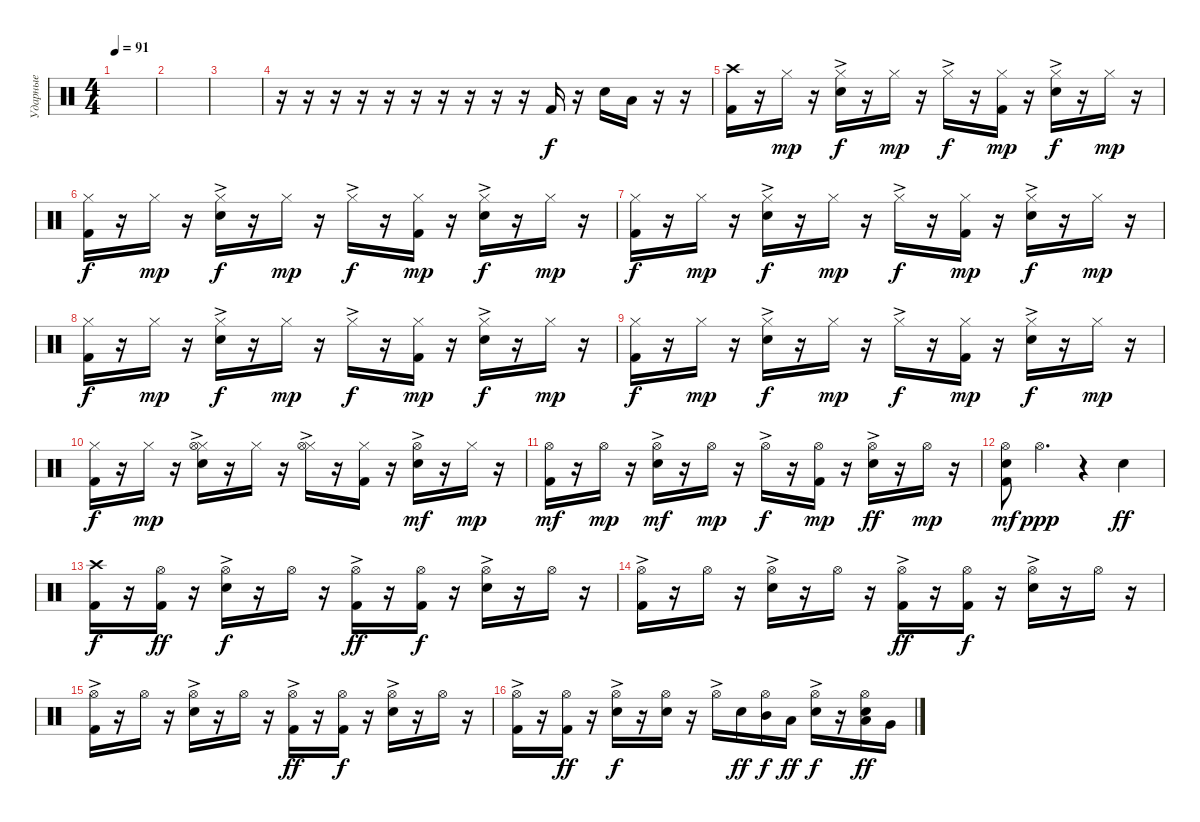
\track ("Ударные" "Ударные") {instrument percussion}
\staff {score}
\articulation defaults
\ts (4 4)
\tempo 91
\clef neutral
\ks c
|
|
|
r.16 r.16 r.16 r.16 r.16 r.16 r.16 r.16 r.16 r.16 "Kick (hit) 2".16 r.16 "Snare (hit) 2".16 "Low Tom (hit)".16 r.16 r.16 |
("Crash high (hit)" "Kick (hit) 2").16 r.16 "Hi-Hat (closed)".16{dy mp} r.16 ("Hi-Hat (closed)"{ac} "Snare (hit) 2").16{dy f} r.16 "Hi-Hat (closed)".16{dy mp} r.16 "Hi-Hat (closed)"{ac}.16{dy f} r.16 ("Hi-Hat (closed)" "Kick (hit) 2").16{dy mp} r.16 ("Hi-Hat (closed)"{ac} "Snare (hit) 2").16{dy f} r.16 "Hi-Hat (closed)".16{dy mp} r.16 |
("Hi-Hat (closed)" "Kick (hit) 2").16{dy f} r.16 "Hi-Hat (closed)".16{dy mp} r.16 ("Hi-Hat (closed)"{ac} "Snare (hit) 2").16{dy f} r.16 "Hi-Hat (closed)".16{dy mp} r.16 "Hi-Hat (closed)"{ac}.16{dy f} r.16 ("Hi-Hat (closed)" "Kick (hit) 2").16{dy mp} r.16 ("Hi-Hat (closed)"{ac} "Snare (hit) 2").16{dy f} r.16 "Hi-Hat (closed)".16{dy mp} r.16 |
("Hi-Hat (closed)" "Kick (hit) 2").16{dy f} r.16 "Hi-Hat (closed)".16{dy mp} r.16 ("Hi-Hat (closed)"{ac} "Snare (hit) 2").16{dy f} r.16 "Hi-Hat (closed)".16{dy mp} r.16 "Hi-Hat (closed)"{ac}.16{dy f} r.16 ("Hi-Hat (closed)" "Kick (hit) 2").16{dy mp} r.16 ("Hi-Hat (closed)"{ac} "Snare (hit) 2").16{dy f} r.16 "Hi-Hat (closed)".16{dy mp} r.16 |
("Hi-Hat (closed)" "Kick (hit) 2").16{dy f} r.16 "Hi-Hat (closed)".16{dy mp} r.16 ("Hi-Hat (closed)"{ac} "Snare (hit) 2").16{dy f} r.16 "Hi-Hat (closed)".16{dy mp} r.16 "Hi-Hat (closed)"{ac}.16{dy f} r.16 ("Hi-Hat (closed)" "Kick (hit) 2").16{dy mp} r.16 ("Hi-Hat (closed)"{ac} "Snare (hit) 2").16{dy f} r.16 "Hi-Hat (closed)".16{dy mp} r.16 |
("Hi-Hat (closed)" "Kick (hit) 2").16{dy f} r.16 "Hi-Hat (closed)".16{dy mp} r.16 ("Hi-Hat (closed)"{ac} "Snare (hit) 2").16{dy f} r.16 "Hi-Hat (closed)".16{dy mp} r.16 "Hi-Hat (closed)"{ac}.16{dy f} r.16 ("Hi-Hat (closed)" "Kick (hit) 2").16{dy mp} r.16 ("Hi-Hat (closed)"{ac} "Snare (hit) 2").16{dy f} r.16 "Hi-Hat (closed)".16{dy mp} r.16 |
("Hi-Hat (closed)" "Kick (hit) 2").16{dy f} r.16 "Hi-Hat (closed)".16{dy mp} r.16 ("Hi-Hat (closed)" "Hi-Hat (open)"{ac} "Snare (hit) 2").16 r.16 "Hi-Hat (closed)".16 r.16 ("Hi-Hat (closed)" "Hi-Hat (open)"{ac}).16 r.16 ("Hi-Hat (closed)" "Kick (hit) 2").16 r.16 ("Hi-Hat (open)"{ac} "Snare (hit) 2").16{dy mf} r.16 "Hi-Hat (closed)".16{dy mp} r.16 |
("Hi-Hat (open)" "Kick (hit) 2").16{dy mf} r.16 "Hi-Hat (open)".16{dy mp} r.16 ("Hi-Hat (open)"{ac} "Snare (hit) 2").16{dy mf} r.16 "Hi-Hat (open)".16{dy mp} r.16 "Hi-Hat (open)"{ac}.16{dy f} r.16 ("Hi-Hat (open)" "Kick (hit) 2").16{dy mp} r.16 ("Hi-Hat (open)"{ac} "Snare (hit) 2").16{dy ff} r.16 "Hi-Hat (open)".16{dy mp} r.16 |
("Hi-Hat (open)" "Kick (hit) 2" "Snare (hit) 2").8{dy mf} "Hi-Hat (open)".4{d dy ppp} r.4 "Snare (hit) 2".4{dy ff} |
("Crash high (hit)" "Kick (hit) 2").16{dy f} r.16 ("Hi-Hat (open)" "Kick (hit) 2").16{dy ff} r.16 ("Hi-Hat (open)"{ac} "Snare (hit) 2").16{dy f} r.16 "Hi-Hat (open)".16 r.16 ("Hi-Hat (open)"{ac} "Kick (hit) 2").16{dy ff} r.16 ("Hi-Hat (open)" "Kick (hit) 2").16{dy f} r.16 ("Hi-Hat (open)"{ac} "Snare (hit) 2").16 r.16 "Hi-Hat (open)".16 r.16 |
("Hi-Hat (open)"{ac} "Kick (hit) 2").16 r.16 "Hi-Hat (open)".16 r.16 ("Hi-Hat (open)"{ac} "Snare (hit) 2").16 r.16 "Hi-Hat (open)".16 r.16 ("Hi-Hat (open)"{ac} "Kick (hit) 2").16{dy ff} r.16 ("Hi-Hat (open)" "Kick (hit) 2").16{dy f} r.16 ("Hi-Hat (open)"{ac} "Snare (hit) 2").16 r.16 "Hi-Hat (open)".16 r.16 |
("Hi-Hat (open)"{ac} "Kick (hit) 2").16 r.16 "Hi-Hat (open)".16 r.16 ("Hi-Hat (open)"{ac} "Snare (hit) 2").16 r.16 "Hi-Hat (open)".16 r.16 ("Hi-Hat (open)"{ac} "Kick (hit) 2").16{dy ff} r.16 ("Hi-Hat (open)" "Kick (hit) 2").16{dy f} r.16 ("Hi-Hat (open)"{ac} "Snare (hit) 2").16 r.16 "Hi-Hat (open)".16 r.16 |
("Hi-Hat (open)"{ac} "Kick (hit) 2").16 r.16 ("Hi-Hat (open)" "Kick (hit) 2").16{dy ff} r.16 ("Hi-Hat (open)"{ac} "Snare (hit) 2").16{dy f} r.16 ("Hi-Hat (open)" "Snare (hit) 2").16 r.16 "Hi-Hat (open)"{ac}.16 "Snare (hit) 2".16{dy ff} ("Hi-Hat (open)" "Mid Tom (hit)").16{dy f} "Low Tom (hit)".16{dy ff} ("Hi-Hat (open)"{ac} "Snare (hit) 2").16{dy f} r.16 ("Hi-Hat (open)" "Snare (hit) 2" "Low Tom (hit)").16{dy ff} "Very Low Tom (hit)".16
